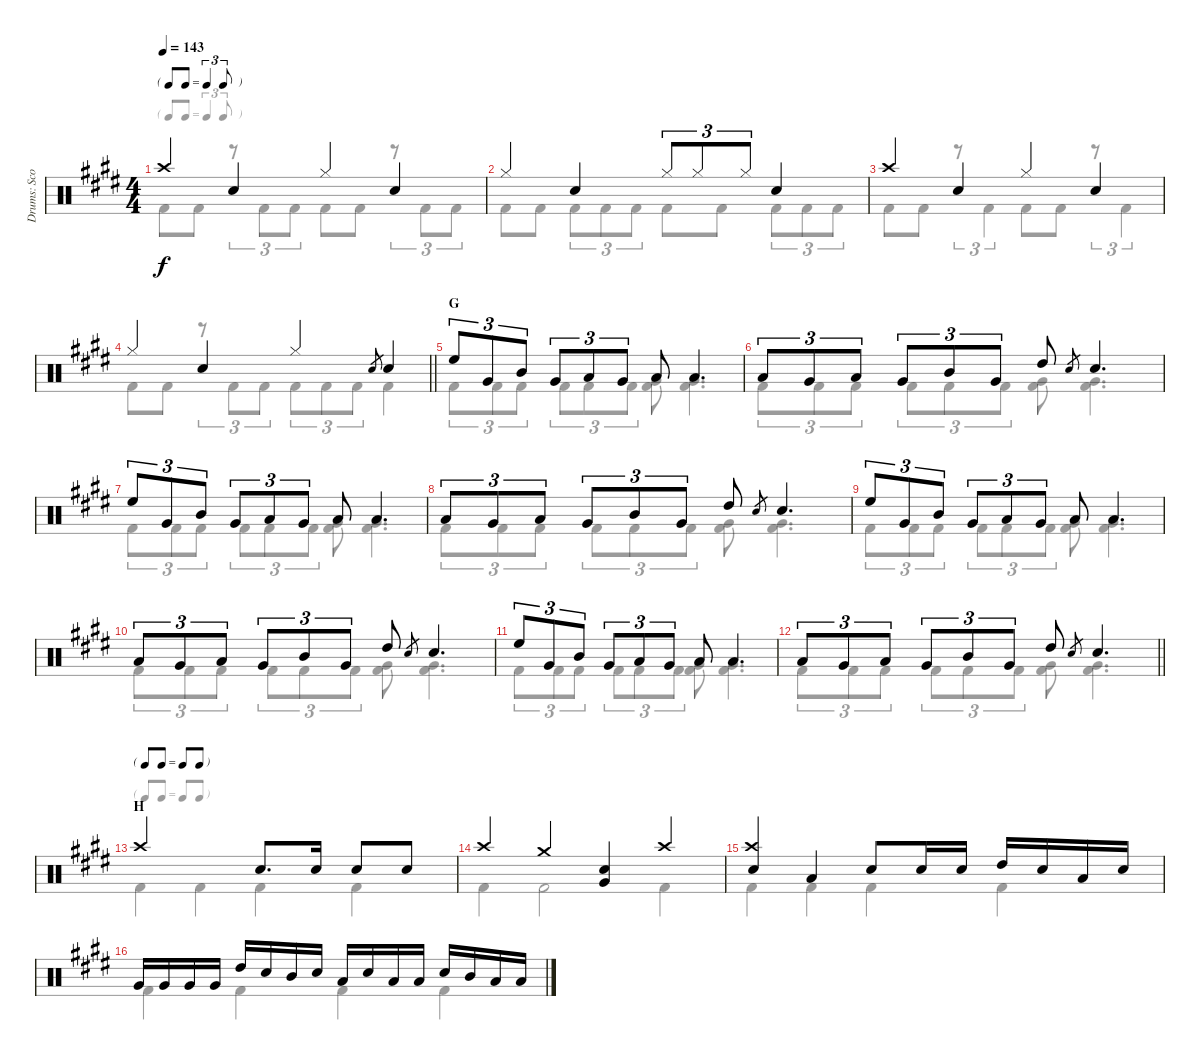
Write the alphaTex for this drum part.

\track ("Drums: Scott" "Drums: Sco") {instrument percussion}
\staff {score}
\articulation defaults
\voice
\ts (4 4)
\tf triplet8th
\tempo 143
\clef neutral
\ks e "Crash high (hit)".4{dy f} "Snare (hit) 2".4 "Hi-Hat (closed)".4 "Snare (hit) 2".4
|
"Hi-Hat (closed)".4 "Snare (hit) 2".4 "Hi-Hat (closed)".8{tu (3 2)} "Hi-Hat (closed)".8{tu (3 2)} "Hi-Hat (closed)".8{tu (3 2)} "Snare (hit) 2".4 |
"Crash high (hit)".4 "Snare (hit) 2".4 "Hi-Hat (closed)".4 "Snare (hit) 2".4 |
\barLineRight lightlight "Hi-Hat (closed)".4 "Snare (hit) 2".4 "Hi-Hat (closed)".4 "Electric Snare (hit)".8{gr} "Snare (hit) 2".4
|
\section ("" "G")
"High Floor Tom (hit)".8{tu (3 2)} "Very Low Tom (hit)".8{tu (3 2)} "Mid Tom (hit)".8{tu (3 2)} "Very Low Tom (hit)".8{tu (3 2)} "Low Tom (hit)".8{tu (3 2)} "Very Low Tom (hit)".8{tu (3 2)} "Low Tom (hit)".8 "Low Tom (hit)".4{d} |
"Low Tom (hit)".8{tu (3 2)} "Very Low Tom (hit)".8{tu (3 2)} "Low Tom (hit)".8{tu (3 2)} "Very Low Tom (hit)".8{tu (3 2)} "Mid Tom (hit)".8{tu (3 2)} "Very Low Tom (hit)".8{tu (3 2)} "High Tom (hit)".8 "Electric Snare (hit)".8{gr} "Snare (hit) 2".4{d} |
"High Floor Tom (hit)".8{tu (3 2)} "Very Low Tom (hit)".8{tu (3 2)} "Mid Tom (hit)".8{tu (3 2)} "Very Low Tom (hit)".8{tu (3 2)} "Low Tom (hit)".8{tu (3 2)} "Very Low Tom (hit)".8{tu (3 2)} "Low Tom (hit)".8 "Low Tom (hit)".4{d} |
"Low Tom (hit)".8{tu (3 2)} "Very Low Tom (hit)".8{tu (3 2)} "Low Tom (hit)".8{tu (3 2)} "Very Low Tom (hit)".8{tu (3 2)} "Mid Tom (hit)".8{tu (3 2)} "Very Low Tom (hit)".8{tu (3 2)} "High Tom (hit)".8 "Electric Snare (hit)".8{gr} "Snare (hit) 2".4{d} |
"High Floor Tom (hit)".8{tu (3 2)} "Very Low Tom (hit)".8{tu (3 2)} "Mid Tom (hit)".8{tu (3 2)} "Very Low Tom (hit)".8{tu (3 2)} "Low Tom (hit)".8{tu (3 2)} "Very Low Tom (hit)".8{tu (3 2)} "Low Tom (hit)".8 "Low Tom (hit)".4{d} |
"Low Tom (hit)".8{tu (3 2)} "Very Low Tom (hit)".8{tu (3 2)} "Low Tom (hit)".8{tu (3 2)} "Very Low Tom (hit)".8{tu (3 2)} "Mid Tom (hit)".8{tu (3 2)} "Very Low Tom (hit)".8{tu (3 2)} "High Tom (hit)".8 "Electric Snare (hit)".8{gr} "Snare (hit) 2".4{d} |
"High Floor Tom (hit)".8{tu (3 2)} "Very Low Tom (hit)".8{tu (3 2)} "Mid Tom (hit)".8{tu (3 2)} "Very Low Tom (hit)".8{tu (3 2)} "Low Tom (hit)".8{tu (3 2)} "Very Low Tom (hit)".8{tu (3 2)} "Low Tom (hit)".8 "Low Tom (hit)".4{d} |
\barLineRight lightlight "Low Tom (hit)".8{tu (3 2)} "Very Low Tom (hit)".8{tu (3 2)} "Low Tom (hit)".8{tu (3 2)} "Very Low Tom (hit)".8{tu (3 2)} "Mid Tom (hit)".8{tu (3 2)} "Very Low Tom (hit)".8{tu (3 2)} "High Tom (hit)".8 "Electric Snare (hit)".8{gr} "Snare (hit) 2".4{d}
|
\tf none
\section ("" "H")
"Crash high (hit)".2 "Snare (hit) 2".8{d} "Electric Snare (hit)".16 "Snare (hit) 2".8 "Snare (hit) 2".8 |
"Crash high (hit)".4 "Crash medium (hit)".4 ("Snare (hit) 2" "Very Low Tom (hit)").4 "Crash high (hit)".4 |
("Crash high (hit)" "Snare (hit) 2").4 "Low Tom (hit)".4 "Snare (hit) 2".8 "Electric Snare (hit)".16 "Electric Snare (hit)".16 "High Tom (hit)".16 "Electric Snare (hit)".16 "Low Tom (hit)".16 "Electric Snare (hit)".16 |
"Very Low Tom (hit)".16 "Very Low Tom (hit)".16 "Very Low Tom (hit)".16 "Very Low Tom (hit)".16 "High Tom (hit)".16 "Electric Snare (hit)".16 "Mid Tom (hit)".16 "Electric Snare (hit)".16 "Low Tom (hit)".16 "Electric Snare (hit)".16 "Low Tom (hit)".16 "Low Tom (hit)".16 "Electric Snare (hit)".16 "Mid Tom (hit)".16 "Low Floor Tom (hit)".16 "Low Floor Tom (hit)".16
\voice
\clef neutral
\ottava regular
\simile none
\ks e "Kick (hit) 2".8{dy f} "Kick (hit) 2".8
r.8{tu (3 2)} "Kick (hit) 2".8{tu (3 2)} "Kick (hit) 2".8{tu (3 2)} "Kick (hit) 2".8 "Kick (hit) 2".8 r.8{tu (3 2)} "Kick (hit) 2".8{tu (3 2)} "Kick (hit) 2".8{tu (3 2)} |
"Kick (hit) 2".8 "Kick (hit) 2".8 "Kick (hit) 2".8{tu (3 2)} "Kick (hit) 2".8{tu (3 2)} "Kick (hit) 2".8{tu (3 2)} "Kick (hit) 2".8 "Kick (hit) 2".8 "Kick (hit) 2".8{tu (3 2)} "Kick (hit) 2".8{tu (3 2)} "Kick (hit) 2".8{tu (3 2)} |
"Kick (hit) 2".8 "Kick (hit) 2".8 r.8{tu (3 2)} "Kick (hit) 2".4{tu (3 2)} "Kick (hit) 2".8 "Kick (hit) 2".8 r.8{tu (3 2)} "Kick (hit) 2".4{tu (3 2)} |
\barLineRight lightlight "Kick (hit) 2".8 "Kick (hit) 2".8
r.8{tu (3 2)} "Kick (hit) 2".8{tu (3 2)} "Kick (hit) 2".8{tu (3 2)} "Kick (hit) 2".8{tu (3 2)} "Kick (hit) 2".8{tu (3 2)} "Kick (hit) 2".8{tu (3 2)} "Kick (hit) 2".4 |
"Kick (hit) 2".8{tu (3 2)} "Kick (hit) 2".8{tu (3 2)} "Kick (hit) 2".8{tu (3 2)} "Kick (hit) 2".8{tu (3 2)} "Kick (hit) 2".8{tu (3 2)} "Kick (hit) 2".8{tu (3 2)} ("Very Low Tom (hit)" "Kick (hit) 2").8 ("Very Low Tom (hit)" "Kick (hit) 2").4{d} |
"Kick (hit) 2".8{tu (3 2)} "Kick (hit) 2".8{tu (3 2)} "Kick (hit) 2".8{tu (3 2)} "Kick (hit) 2".8{tu (3 2)} "Kick (hit) 2".8{tu (3 2)} "Kick (hit) 2".8{tu (3 2)} ("Very Low Tom (hit)" "Kick (hit) 2").8 ("Very Low Tom (hit)" "Kick (hit) 2").4{d} |
"Kick (hit) 2".8{tu (3 2)} "Kick (hit) 2".8{tu (3 2)} "Kick (hit) 2".8{tu (3 2)} "Kick (hit) 2".8{tu (3 2)} "Kick (hit) 2".8{tu (3 2)} "Kick (hit) 2".8{tu (3 2)} ("Very Low Tom (hit)" "Kick (hit) 2").8 ("Very Low Tom (hit)" "Kick (hit) 2").4{d} |
"Kick (hit) 2".8{tu (3 2)} "Kick (hit) 2".8{tu (3 2)} "Kick (hit) 2".8{tu (3 2)} "Kick (hit) 2".8{tu (3 2)} "Kick (hit) 2".8{tu (3 2)} "Kick (hit) 2".8{tu (3 2)} ("Very Low Tom (hit)" "Kick (hit) 2").8 ("Very Low Tom (hit)" "Kick (hit) 2").4{d} |
"Kick (hit) 2".8{tu (3 2)} "Kick (hit) 2".8{tu (3 2)} "Kick (hit) 2".8{tu (3 2)} "Kick (hit) 2".8{tu (3 2)} "Kick (hit) 2".8{tu (3 2)} "Kick (hit) 2".8{tu (3 2)} ("Very Low Tom (hit)" "Kick (hit) 2").8 ("Very Low Tom (hit)" "Kick (hit) 2").4{d} |
"Kick (hit) 2".8{tu (3 2)} "Kick (hit) 2".8{tu (3 2)} "Kick (hit) 2".8{tu (3 2)} "Kick (hit) 2".8{tu (3 2)} "Kick (hit) 2".8{tu (3 2)} "Kick (hit) 2".8{tu (3 2)} ("Very Low Tom (hit)" "Kick (hit) 2").8 ("Very Low Tom (hit)" "Kick (hit) 2").4{d} |
"Kick (hit) 2".8{tu (3 2)} "Kick (hit) 2".8{tu (3 2)} "Kick (hit) 2".8{tu (3 2)} "Kick (hit) 2".8{tu (3 2)} "Kick (hit) 2".8{tu (3 2)} "Kick (hit) 2".8{tu (3 2)} ("Very Low Tom (hit)" "Kick (hit) 2").8 ("Very Low Tom (hit)" "Kick (hit) 2").4{d} |
\barLineRight lightlight "Kick (hit) 2".8{tu (3 2)} "Kick (hit) 2".8{tu (3 2)} "Kick (hit) 2".8{tu (3 2)} "Kick (hit) 2".8{tu (3 2)} "Kick (hit) 2".8{tu (3 2)} "Kick (hit) 2".8{tu (3 2)}
("Very Low Tom (hit)" "Kick (hit) 2").8 ("Very Low Tom (hit)" "Kick (hit) 2").4{d} |
"Kick (hit) 2".4 "Kick (hit) 2".4 "Kick (hit) 2".4 "Kick (hit) 2".4 |
"Kick (hit) 2".4 "Kick (hit) 2".2 "Kick (hit) 2".4 |
"Kick (hit) 2".4 "Kick (hit) 2".4 "Kick (hit) 2".4 "Kick (hit) 2".4 |
"Kick (hit) 2".4 "Kick (hit) 2".4 "Kick (hit) 2".4 "Kick (hit) 2".4
